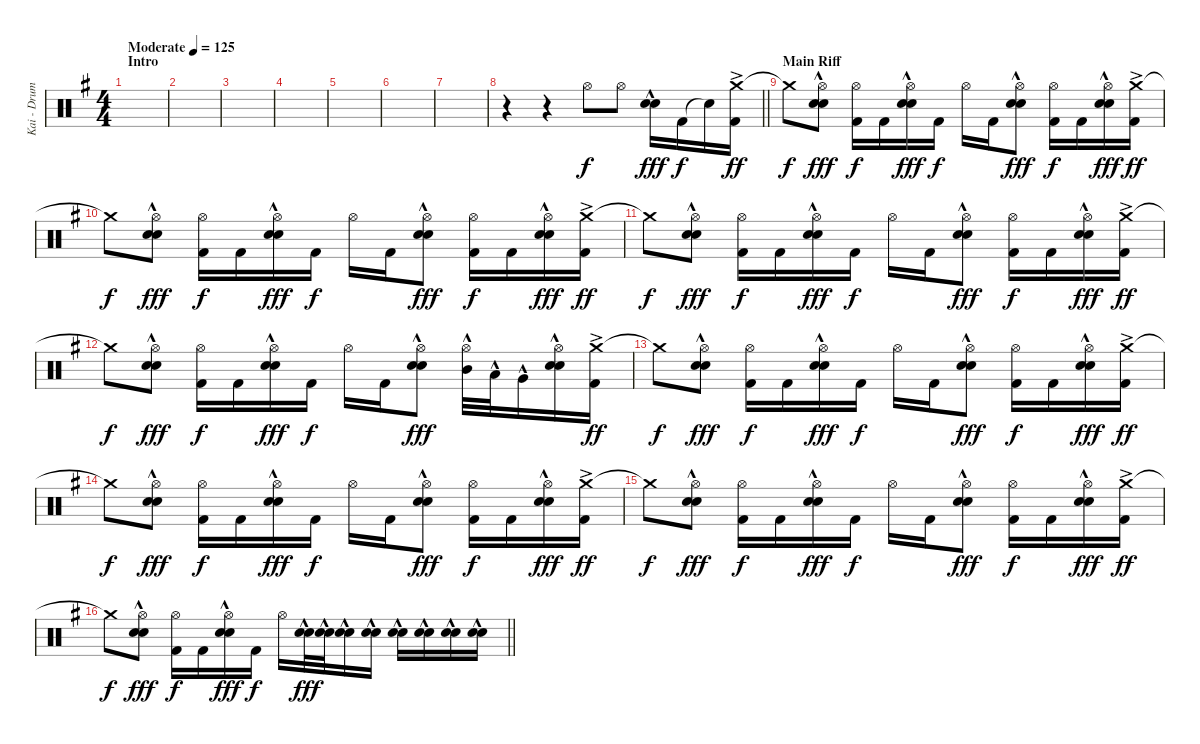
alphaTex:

\track ("Kai - Drums" "Kai - Drum") {instrument percussion}
\staff {score}
\articulation defaults
\ts (4 4)
\section ("" "Intro")
\tempo (125 "Moderate")
\clef neutral
\ks eminor
|
|
|
|
|
|
|
\barLineRight lightlight
r.4 r.4 "Hi-Hat (open)".8 "Hi-Hat (open)".8 ("Electric Snare (hit)"{hac} "Snare (hit) 2"{hac}).16{dy fff} "Kick (hit) 2".16{dy f} "Snare (hit)"{t}.16 ("Crash medium (hit)"{ac} "Kick (hit) 2").16{dy ff} |
\section ("" "Main Riff")
"Crash medium (hit)"{t}.8{dy f} ("Hi-Hat (open)" "Electric Snare (hit)"{hac} "Snare (hit) 2"{hac}).8{dy fff} ("Hi-Hat (open)" "Kick (hit) 2").16{dy f} "Kick (hit) 2".16 ("Hi-Hat (open)" "Electric Snare (hit)"{hac} "Snare (hit) 2"{hac}).16{dy fff} "Kick (hit) 2".16{dy f} "Hi-Hat (open)".16 "Kick (hit) 2".16 ("Hi-Hat (open)" "Electric Snare (hit)"{hac} "Snare (hit) 2"{hac}).8{dy fff} ("Hi-Hat (open)" "Kick (hit) 2").16{dy f} "Kick (hit) 2".16 ("Hi-Hat (open)" "Electric Snare (hit)"{hac} "Snare (hit) 2"{hac}).16{dy fff} ("Crash medium (hit)"{ac} "Kick (hit) 2").16{dy ff} |
"Crash medium (hit)"{t}.8{dy f} ("Hi-Hat (open)" "Electric Snare (hit)"{hac} "Snare (hit) 2"{hac}).8{dy fff} ("Hi-Hat (open)" "Kick (hit) 2").16{dy f} "Kick (hit) 2".16 ("Hi-Hat (open)" "Electric Snare (hit)"{hac} "Snare (hit) 2"{hac}).16{dy fff} "Kick (hit) 2".16{dy f} "Hi-Hat (open)".16 "Kick (hit) 2".16 ("Hi-Hat (open)" "Electric Snare (hit)"{hac} "Snare (hit) 2"{hac}).8{dy fff} ("Hi-Hat (open)" "Kick (hit) 2").16{dy f} "Kick (hit) 2".16 ("Hi-Hat (open)" "Electric Snare (hit)"{hac} "Snare (hit) 2"{hac}).16{dy fff} ("Crash medium (hit)"{ac} "Kick (hit) 2").16{dy ff} |
"Crash medium (hit)"{t}.8{dy f} ("Hi-Hat (open)" "Electric Snare (hit)"{hac} "Snare (hit) 2"{hac}).8{dy fff} ("Hi-Hat (open)" "Kick (hit) 2").16{dy f} "Kick (hit) 2".16 ("Hi-Hat (open)" "Electric Snare (hit)"{hac} "Snare (hit) 2"{hac}).16{dy fff} "Kick (hit) 2".16{dy f} "Hi-Hat (open)".16 "Kick (hit) 2".16 ("Hi-Hat (open)" "Electric Snare (hit)"{hac} "Snare (hit) 2"{hac}).8{dy fff} ("Hi-Hat (open)" "Kick (hit) 2").16{dy f} "Kick (hit) 2".16 ("Hi-Hat (open)" "Electric Snare (hit)"{hac} "Snare (hit) 2"{hac}).16{dy fff} ("Crash medium (hit)"{ac} "Kick (hit) 2").16{dy ff} |
"Crash medium (hit)"{t}.8{dy f} ("Hi-Hat (open)" "Electric Snare (hit)"{hac} "Snare (hit) 2"{hac}).8{dy fff} ("Hi-Hat (open)" "Kick (hit) 2").16{dy f} "Kick (hit) 2".16 ("Hi-Hat (open)" "Electric Snare (hit)"{hac} "Snare (hit) 2"{hac}).16{dy fff} "Kick (hit) 2".16{dy f} "Hi-Hat (open)".16 "Kick (hit) 2".16 ("Hi-Hat (open)" "Electric Snare (hit)"{hac} "Snare (hit) 2"{hac}).8{dy fff} ("Hi-Hat (open)" "Mid Tom (hit)"{hac}).32 "Low Tom (hit)"{hac}.32 "Very Low Tom (hit)"{hac}.16 ("Hi-Hat (open)" "Electric Snare (hit)"{hac} "Snare (hit) 2"{hac}).16 ("Crash medium (hit)"{ac} "Kick (hit) 2").16{dy ff} |
"Crash medium (hit)"{t}.8{dy f} ("Hi-Hat (open)" "Electric Snare (hit)"{hac} "Snare (hit) 2"{hac}).8{dy fff} ("Hi-Hat (open)" "Kick (hit) 2").16{dy f} "Kick (hit) 2".16 ("Hi-Hat (open)" "Electric Snare (hit)"{hac} "Snare (hit) 2"{hac}).16{dy fff} "Kick (hit) 2".16{dy f} "Hi-Hat (open)".16 "Kick (hit) 2".16 ("Hi-Hat (open)" "Electric Snare (hit)"{hac} "Snare (hit) 2"{hac}).8{dy fff} ("Hi-Hat (open)" "Kick (hit) 2").16{dy f} "Kick (hit) 2".16 ("Hi-Hat (open)" "Electric Snare (hit)"{hac} "Snare (hit) 2"{hac}).16{dy fff} ("Crash medium (hit)"{ac} "Kick (hit) 2").16{dy ff} |
"Crash medium (hit)"{t}.8{dy f} ("Hi-Hat (open)" "Electric Snare (hit)"{hac} "Snare (hit) 2"{hac}).8{dy fff} ("Hi-Hat (open)" "Kick (hit) 2").16{dy f} "Kick (hit) 2".16 ("Hi-Hat (open)" "Electric Snare (hit)"{hac} "Snare (hit) 2"{hac}).16{dy fff} "Kick (hit) 2".16{dy f} "Hi-Hat (open)".16 "Kick (hit) 2".16 ("Hi-Hat (open)" "Electric Snare (hit)"{hac} "Snare (hit) 2"{hac}).8{dy fff} ("Hi-Hat (open)" "Kick (hit) 2").16{dy f} "Kick (hit) 2".16 ("Hi-Hat (open)" "Electric Snare (hit)"{hac} "Snare (hit) 2"{hac}).16{dy fff} ("Crash medium (hit)"{ac} "Kick (hit) 2").16{dy ff} |
"Crash medium (hit)"{t}.8{dy f} ("Hi-Hat (open)" "Electric Snare (hit)"{hac} "Snare (hit) 2"{hac}).8{dy fff} ("Hi-Hat (open)" "Kick (hit) 2").16{dy f} "Kick (hit) 2".16 ("Hi-Hat (open)" "Electric Snare (hit)"{hac} "Snare (hit) 2"{hac}).16{dy fff} "Kick (hit) 2".16{dy f} "Hi-Hat (open)".16 "Kick (hit) 2".16 ("Hi-Hat (open)" "Electric Snare (hit)"{hac} "Snare (hit) 2"{hac}).8{dy fff} ("Hi-Hat (open)" "Kick (hit) 2").16{dy f} "Kick (hit) 2".16 ("Hi-Hat (open)" "Electric Snare (hit)"{hac} "Snare (hit) 2"{hac}).16{dy fff} ("Crash medium (hit)"{ac} "Kick (hit) 2").16{dy ff} |
\barLineRight lightlight "Crash medium (hit)"{t}.8{dy f}
("Hi-Hat (open)" "Electric Snare (hit)"{hac} "Snare (hit) 2"{hac}).8{dy fff} ("Hi-Hat (open)" "Kick (hit) 2").16{dy f} "Kick (hit) 2".16 ("Hi-Hat (open)" "Electric Snare (hit)"{hac} "Snare (hit) 2"{hac}).16{dy fff} "Kick (hit) 2".16{dy f} "Hi-Hat (open)".16 ("Electric Snare (hit)"{hac} "Snare (hit) 2"{hac}).32{dy fff} ("Electric Snare (hit)"{hac} "Snare (hit) 2"{hac}).32 ("Electric Snare (hit)"{hac} "Snare (hit) 2"{hac}).16 ("Electric Snare (hit)"{hac} "Snare (hit) 2"{hac}).16 ("Electric Snare (hit)"{hac} "Snare (hit) 2"{hac}).16 ("Electric Snare (hit)"{hac} "Snare (hit) 2"{hac}).16 ("Electric Snare (hit)"{hac} "Snare (hit) 2"{hac}).16 ("Electric Snare (hit)"{hac} "Snare (hit) 2"{hac}).16
